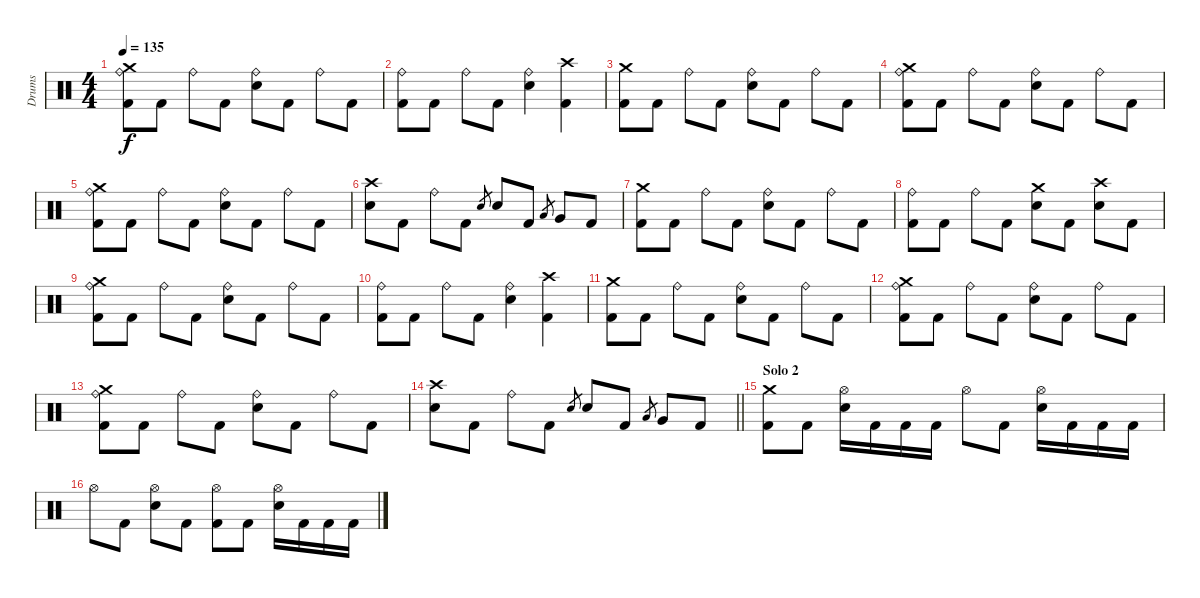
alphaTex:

\track ("Drums" "Drums") {instrument percussion}
\staff {score}
\articulation defaults
\ts (4 4)
\tempo 135
\clef neutral
\ks c
("Crash medium (hit)" "Ride (bell)" "Kick (hit) 2").8{dy f} "Kick (hit) 2".8 "Ride (bell)".8 "Kick (hit) 2".8 ("Ride (bell)" "Snare (hit) 2").8 "Kick (hit) 2".8 "Ride (bell)".8 "Kick (hit) 2".8 |
("Ride (bell)" "Kick (hit) 2").8 "Kick (hit) 2".8 "Ride (bell)".8 "Kick (hit) 2".8 ("Ride (bell)" "Snare (hit) 2").4 ("Crash high (hit)" "Kick (hit) 2").4 |
("Crash medium (hit)" "Kick (hit) 2").8 "Kick (hit) 2".8 "Ride (bell)".8 "Kick (hit) 2".8 ("Ride (bell)" "Snare (hit) 2").8 "Kick (hit) 2".8 "Ride (bell)".8 "Kick (hit) 2".8 |
("Crash medium (hit)" "Ride (bell)" "Kick (hit) 2").8 "Kick (hit) 2".8 "Ride (bell)".8 "Kick (hit) 2".8 ("Ride (bell)" "Snare (hit) 2").8 "Kick (hit) 2".8 "Ride (bell)".8 "Kick (hit) 2".8 |
("Crash medium (hit)" "Ride (bell)" "Kick (hit) 2").8 "Kick (hit) 2".8 "Ride (bell)".8 "Kick (hit) 2".8 ("Ride (bell)" "Snare (hit) 2").8 "Kick (hit) 2".8 "Ride (bell)".8 "Kick (hit) 2".8 |
("Crash high (hit)" "Snare (hit) 2").8 "Kick (hit) 2".8 "Ride (bell)".8 "Kick (hit) 2".8 "Snare (hit) 2".8{gr} "Snare (hit) 2".8 "Kick (hit) 2".8 "Low Tom (hit)".8{gr} "Very Low Tom (hit)".8 "Kick (hit) 2".8 |
("Crash medium (hit)" "Kick (hit) 2").8 "Kick (hit) 2".8 "Ride (bell)".8 "Kick (hit) 2".8 ("Ride (bell)" "Snare (hit) 2").8 "Kick (hit) 2".8 "Ride (bell)".8 "Kick (hit) 2".8 |
("Ride (bell)" "Kick (hit) 2").8 "Kick (hit) 2".8 "Ride (bell)".8 "Kick (hit) 2".8 ("Crash medium (hit)" "Snare (hit) 2").8 "Kick (hit) 2".8 ("Crash high (hit)" "Snare (hit) 2").8 "Kick (hit) 2".8 |
("Crash medium (hit)" "Ride (bell)" "Kick (hit) 2").8 "Kick (hit) 2".8 "Ride (bell)".8 "Kick (hit) 2".8 ("Ride (bell)" "Snare (hit) 2").8 "Kick (hit) 2".8 "Ride (bell)".8 "Kick (hit) 2".8 |
("Ride (bell)" "Kick (hit) 2").8 "Kick (hit) 2".8 "Ride (bell)".8 "Kick (hit) 2".8 ("Ride (bell)" "Snare (hit) 2").4 ("Crash high (hit)" "Kick (hit) 2").4 |
("Crash medium (hit)" "Kick (hit) 2").8 "Kick (hit) 2".8 "Ride (bell)".8 "Kick (hit) 2".8 ("Ride (bell)" "Snare (hit) 2").8 "Kick (hit) 2".8 "Ride (bell)".8 "Kick (hit) 2".8 |
("Crash medium (hit)" "Ride (bell)" "Kick (hit) 2").8 "Kick (hit) 2".8 "Ride (bell)".8 "Kick (hit) 2".8 ("Ride (bell)" "Snare (hit) 2").8 "Kick (hit) 2".8 "Ride (bell)".8 "Kick (hit) 2".8 |
("Crash medium (hit)" "Ride (bell)" "Kick (hit) 2").8 "Kick (hit) 2".8 "Ride (bell)".8 "Kick (hit) 2".8 ("Ride (bell)" "Snare (hit) 2").8 "Kick (hit) 2".8 "Ride (bell)".8 "Kick (hit) 2".8 |
\barLineRight lightlight
("Crash high (hit)" "Snare (hit) 2").8 "Kick (hit) 2".8 "Ride (bell)".8 "Kick (hit) 2".8 "Snare (hit) 2".8{gr} "Snare (hit) 2".8 "Kick (hit) 2".8 "Low Tom (hit)".8{gr} "Very Low Tom (hit)".8 "Kick (hit) 2".8 |
\section ("" "Solo 2")
("Crash medium (hit)" "Kick (hit) 2").8 "Kick (hit) 2".8 ("Hi-Hat (open)" "Snare (hit) 2").16 "Kick (hit) 2".16 "Kick (hit) 2".16 "Kick (hit) 2".16 "Hi-Hat (open)".8 "Kick (hit) 2".8 ("Hi-Hat (open)" "Snare (hit) 2").16 "Kick (hit) 2".16 "Kick (hit) 2".16 "Kick (hit) 2".16 |
"Hi-Hat (open)".8 "Kick (hit) 2".8 ("Hi-Hat (open)" "Snare (hit) 2").8 "Kick (hit) 2".8 ("Hi-Hat (open)" "Kick (hit) 2").8 "Kick (hit) 2".8 ("Hi-Hat (open)" "Snare (hit) 2").16 "Kick (hit) 2".16 "Kick (hit) 2".16 "Kick (hit) 2".16
